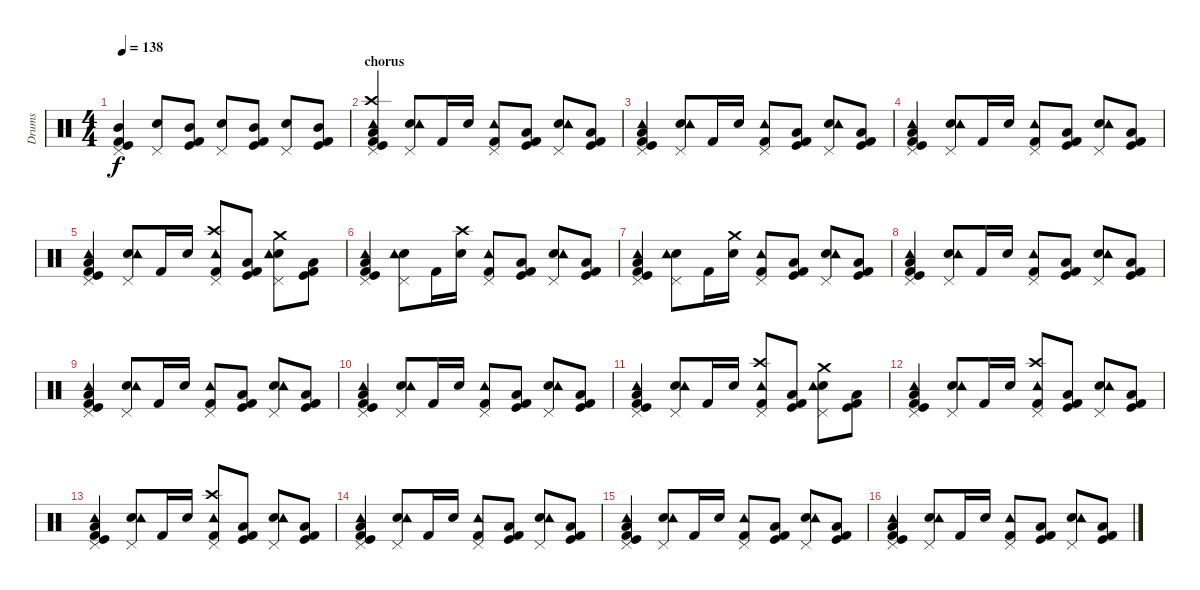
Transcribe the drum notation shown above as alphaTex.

\track ("Drums" "Drums") {instrument percussion}
\staff {score}
\articulation defaults
\ts (4 4)
\tempo 138
\clef neutral
\ks c
("Pedal Hi-Hat (hit)" "Mid Tom (hit)" "Kick (hit) 2" "Kick (hit)").4{dy f} ("Pedal Hi-Hat (hit)" "Electric Snare (hit)").8 ("Kick (hit) 2" "Kick (hit)" "Mid Tom (hit)").8 ("Pedal Hi-Hat (hit)" "Electric Snare (hit)").8 ("Kick (hit) 2" "Kick (hit)" "Mid Tom (hit)").8 ("Pedal Hi-Hat (hit)" "Electric Snare (hit)").8 ("Kick (hit) 2" "Kick (hit)" "Mid Tom (hit)").8 |
\section ("" "chorus")
("Crash high (hit)" "Pedal Hi-Hat (hit)" "Kick (hit) 2" "Kick (hit)" "Low Floor Tom (hit)" "Tambourine (hit)").4 ("Pedal Hi-Hat (hit)" "Electric Snare (hit)" "Tambourine (hit)").8 "Kick (hit) 2".16 "Electric Snare (hit)".16 ("Pedal Hi-Hat (hit)" "Kick (hit) 2" "Tambourine (hit)").8 ("Kick (hit) 2" "Kick (hit)" "Low Floor Tom (hit)").8 ("Pedal Hi-Hat (hit)" "Electric Snare (hit)" "Tambourine (hit)").8 ("Kick (hit) 2" "Low Floor Tom (hit)" "Kick (hit)").8 |
("Pedal Hi-Hat (hit)" "Kick (hit) 2" "Kick (hit)" "Low Floor Tom (hit)" "Tambourine (hit)").4 ("Pedal Hi-Hat (hit)" "Electric Snare (hit)" "Tambourine (hit)").8 "Kick (hit) 2".16 "Electric Snare (hit)".16 ("Pedal Hi-Hat (hit)" "Kick (hit) 2" "Tambourine (hit)").8 ("Kick (hit) 2" "Kick (hit)" "Low Floor Tom (hit)").8 ("Pedal Hi-Hat (hit)" "Electric Snare (hit)" "Tambourine (hit)").8 ("Kick (hit) 2" "Low Floor Tom (hit)" "Kick (hit)").8 |
("Pedal Hi-Hat (hit)" "Kick (hit) 2" "Kick (hit)" "Low Floor Tom (hit)" "Tambourine (hit)").4 ("Pedal Hi-Hat (hit)" "Electric Snare (hit)" "Tambourine (hit)").8 "Kick (hit) 2".16 "Electric Snare (hit)".16 ("Pedal Hi-Hat (hit)" "Kick (hit) 2" "Tambourine (hit)").8 ("Kick (hit) 2" "Kick (hit)" "Low Floor Tom (hit)").8 ("Pedal Hi-Hat (hit)" "Electric Snare (hit)" "Tambourine (hit)").8 ("Kick (hit) 2" "Low Floor Tom (hit)" "Kick (hit)").8 |
("Pedal Hi-Hat (hit)" "Kick (hit) 2" "Kick (hit)" "Low Floor Tom (hit)" "Tambourine (hit)").4 ("Pedal Hi-Hat (hit)" "Electric Snare (hit)" "Tambourine (hit)").8 "Kick (hit) 2".16 "Electric Snare (hit)".16 ("Crash high (hit)" "Pedal Hi-Hat (hit)" "Kick (hit) 2" "Tambourine (hit)").8 ("Kick (hit) 2" "Kick (hit)" "Low Floor Tom (hit)").8 ("Crash medium (hit)" "Pedal Hi-Hat (hit)" "Electric Snare (hit)" "Tambourine (hit)").8 ("Kick (hit) 2" "Low Floor Tom (hit)" "Kick (hit)").8 |
("Pedal Hi-Hat (hit)" "Kick (hit) 2" "Kick (hit)" "Low Floor Tom (hit)" "Tambourine (hit)").4 ("Pedal Hi-Hat (hit)" "Electric Snare (hit)" "Tambourine (hit)").8 "Kick (hit) 2".16 ("Crash high (hit)" "Electric Snare (hit)").16 ("Pedal Hi-Hat (hit)" "Kick (hit) 2" "Tambourine (hit)").8 ("Kick (hit) 2" "Kick (hit)" "Low Floor Tom (hit)").8 ("Pedal Hi-Hat (hit)" "Electric Snare (hit)" "Tambourine (hit)").8 ("Kick (hit) 2" "Low Floor Tom (hit)" "Kick (hit)").8 |
("Pedal Hi-Hat (hit)" "Kick (hit) 2" "Kick (hit)" "Low Floor Tom (hit)" "Tambourine (hit)").4 ("Pedal Hi-Hat (hit)" "Electric Snare (hit)" "Tambourine (hit)").8 "Kick (hit) 2".16 ("Crash medium (hit)" "Electric Snare (hit)").16 ("Pedal Hi-Hat (hit)" "Kick (hit) 2" "Tambourine (hit)").8 ("Kick (hit) 2" "Kick (hit)" "Low Floor Tom (hit)").8 ("Pedal Hi-Hat (hit)" "Electric Snare (hit)" "Tambourine (hit)").8 ("Kick (hit) 2" "Low Floor Tom (hit)" "Kick (hit)").8 |
("Pedal Hi-Hat (hit)" "Kick (hit) 2" "Kick (hit)" "Low Floor Tom (hit)" "Tambourine (hit)").4 ("Pedal Hi-Hat (hit)" "Electric Snare (hit)" "Tambourine (hit)").8 "Kick (hit) 2".16 "Electric Snare (hit)".16 ("Pedal Hi-Hat (hit)" "Kick (hit) 2" "Tambourine (hit)").8 ("Kick (hit) 2" "Kick (hit)" "Low Floor Tom (hit)").8 ("Pedal Hi-Hat (hit)" "Electric Snare (hit)" "Tambourine (hit)").8 ("Kick (hit) 2" "Low Floor Tom (hit)" "Kick (hit)").8 |
("Pedal Hi-Hat (hit)" "Kick (hit) 2" "Kick (hit)" "Low Floor Tom (hit)" "Tambourine (hit)").4 ("Pedal Hi-Hat (hit)" "Electric Snare (hit)" "Tambourine (hit)").8 "Kick (hit) 2".16 "Electric Snare (hit)".16 ("Pedal Hi-Hat (hit)" "Kick (hit) 2" "Tambourine (hit)").8 ("Kick (hit) 2" "Kick (hit)" "Low Floor Tom (hit)").8 ("Pedal Hi-Hat (hit)" "Electric Snare (hit)" "Tambourine (hit)").8 ("Kick (hit) 2" "Low Floor Tom (hit)" "Kick (hit)").8 |
("Pedal Hi-Hat (hit)" "Kick (hit) 2" "Kick (hit)" "Low Floor Tom (hit)" "Tambourine (hit)").4 ("Pedal Hi-Hat (hit)" "Electric Snare (hit)" "Tambourine (hit)").8 "Kick (hit) 2".16 "Electric Snare (hit)".16 ("Pedal Hi-Hat (hit)" "Kick (hit) 2" "Tambourine (hit)").8 ("Kick (hit) 2" "Kick (hit)" "Low Floor Tom (hit)").8 ("Pedal Hi-Hat (hit)" "Electric Snare (hit)" "Tambourine (hit)").8 ("Kick (hit) 2" "Low Floor Tom (hit)" "Kick (hit)").8 |
("Pedal Hi-Hat (hit)" "Kick (hit) 2" "Kick (hit)" "Low Floor Tom (hit)" "Tambourine (hit)").4 ("Pedal Hi-Hat (hit)" "Electric Snare (hit)" "Tambourine (hit)").8 "Kick (hit) 2".16 "Electric Snare (hit)".16 ("Crash high (hit)" "Pedal Hi-Hat (hit)" "Kick (hit) 2" "Tambourine (hit)").8 ("Kick (hit) 2" "Kick (hit)" "Low Floor Tom (hit)").8 ("Crash medium (hit)" "Pedal Hi-Hat (hit)" "Electric Snare (hit)" "Tambourine (hit)").8 ("Kick (hit) 2" "Low Floor Tom (hit)" "Kick (hit)").8 |
("Pedal Hi-Hat (hit)" "Kick (hit) 2" "Kick (hit)" "Low Floor Tom (hit)" "Tambourine (hit)").4 ("Pedal Hi-Hat (hit)" "Electric Snare (hit)" "Tambourine (hit)").8 "Kick (hit) 2".16 "Electric Snare (hit)".16 ("Crash high (hit)" "Pedal Hi-Hat (hit)" "Kick (hit) 2" "Tambourine (hit)").8 ("Kick (hit) 2" "Kick (hit)" "Low Floor Tom (hit)").8 ("Pedal Hi-Hat (hit)" "Electric Snare (hit)" "Tambourine (hit)").8 ("Kick (hit) 2" "Low Floor Tom (hit)" "Kick (hit)").8 |
("Pedal Hi-Hat (hit)" "Kick (hit) 2" "Kick (hit)" "Low Floor Tom (hit)" "Tambourine (hit)").4 ("Pedal Hi-Hat (hit)" "Electric Snare (hit)" "Tambourine (hit)").8 "Kick (hit) 2".16 "Electric Snare (hit)".16 ("Crash high (hit)" "Pedal Hi-Hat (hit)" "Kick (hit) 2" "Tambourine (hit)").8 ("Kick (hit) 2" "Kick (hit)" "Low Floor Tom (hit)").8 ("Pedal Hi-Hat (hit)" "Electric Snare (hit)" "Tambourine (hit)").8 ("Kick (hit) 2" "Low Floor Tom (hit)" "Kick (hit)").8 |
("Pedal Hi-Hat (hit)" "Kick (hit) 2" "Kick (hit)" "Low Floor Tom (hit)" "Tambourine (hit)").4 ("Pedal Hi-Hat (hit)" "Electric Snare (hit)" "Tambourine (hit)").8 "Kick (hit) 2".16 "Electric Snare (hit)".16 ("Pedal Hi-Hat (hit)" "Kick (hit) 2" "Tambourine (hit)").8 ("Kick (hit) 2" "Kick (hit)" "Low Floor Tom (hit)").8 ("Pedal Hi-Hat (hit)" "Electric Snare (hit)" "Tambourine (hit)").8 ("Kick (hit) 2" "Low Floor Tom (hit)" "Kick (hit)").8 |
("Pedal Hi-Hat (hit)" "Kick (hit) 2" "Kick (hit)" "Low Floor Tom (hit)" "Tambourine (hit)").4 ("Pedal Hi-Hat (hit)" "Electric Snare (hit)" "Tambourine (hit)").8 "Kick (hit) 2".16 "Electric Snare (hit)".16 ("Pedal Hi-Hat (hit)" "Kick (hit) 2" "Tambourine (hit)").8 ("Kick (hit) 2" "Kick (hit)" "Low Floor Tom (hit)").8 ("Pedal Hi-Hat (hit)" "Electric Snare (hit)" "Tambourine (hit)").8 ("Kick (hit) 2" "Low Floor Tom (hit)" "Kick (hit)").8 |
("Pedal Hi-Hat (hit)" "Kick (hit) 2" "Kick (hit)" "Low Floor Tom (hit)" "Tambourine (hit)").4 ("Pedal Hi-Hat (hit)" "Electric Snare (hit)" "Tambourine (hit)").8 "Kick (hit) 2".16 "Electric Snare (hit)".16 ("Pedal Hi-Hat (hit)" "Kick (hit) 2" "Tambourine (hit)").8 ("Kick (hit) 2" "Kick (hit)" "Low Floor Tom (hit)").8 ("Pedal Hi-Hat (hit)" "Electric Snare (hit)" "Tambourine (hit)").8 ("Kick (hit) 2" "Low Floor Tom (hit)" "Kick (hit)").8
